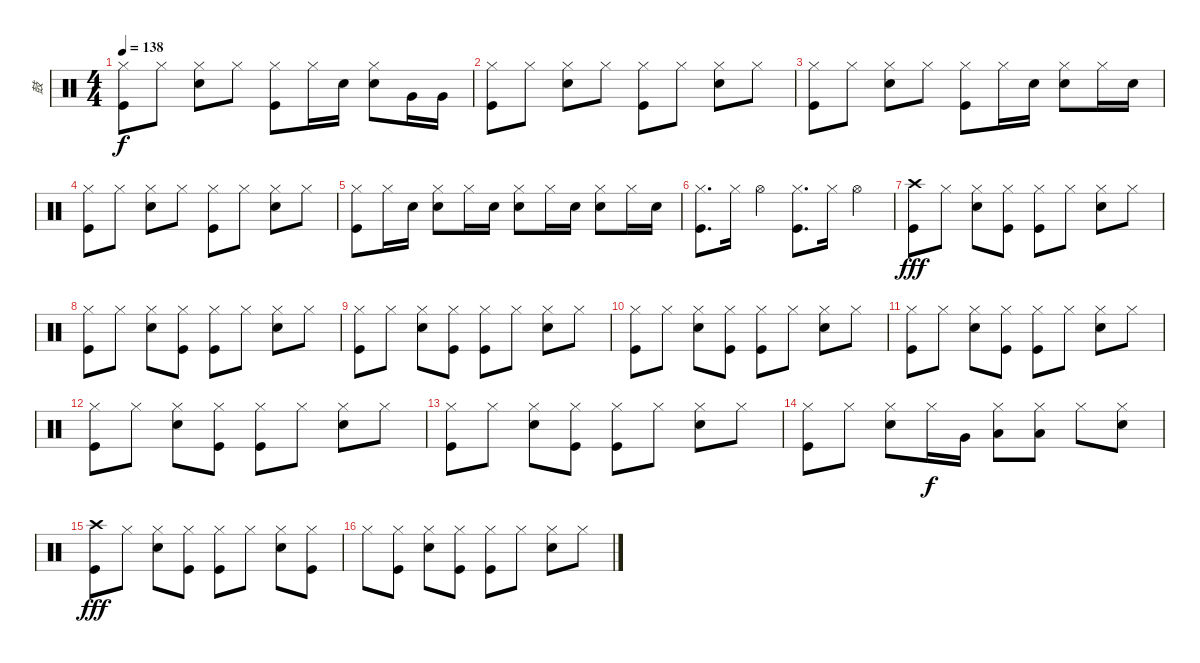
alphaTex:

\track ("鼓" "鼓") {instrument percussion}
\staff {score}
\articulation defaults
\ts (4 4)
\tempo 138
\clef neutral
\ks c
("Hi-Hat (closed)" "Kick (hit)").8{dy f} "Hi-Hat (closed)".8 ("Hi-Hat (closed)" "Snare (hit) 2").8 "Hi-Hat (closed)".8 ("Hi-Hat (closed)" "Kick (hit)").8 "Hi-Hat (closed)".16 "Snare (hit) 2".16 ("Hi-Hat (closed)" "Snare (hit) 2").8 "Very Low Tom (hit)".16 "Very Low Tom (hit)".16 |
("Hi-Hat (closed)" "Kick (hit)").8 "Hi-Hat (closed)".8 ("Hi-Hat (closed)" "Snare (hit) 2").8 "Hi-Hat (closed)".8 ("Hi-Hat (closed)" "Kick (hit)").8 "Hi-Hat (closed)".8 ("Hi-Hat (closed)" "Snare (hit) 2").8 "Hi-Hat (closed)".8 |
("Hi-Hat (closed)" "Kick (hit)").8 "Hi-Hat (closed)".8 ("Hi-Hat (closed)" "Snare (hit) 2").8 "Hi-Hat (closed)".8 ("Hi-Hat (closed)" "Kick (hit)").8 "Hi-Hat (closed)".16 "Snare (hit) 2".16 ("Hi-Hat (closed)" "Snare (hit) 2").8 "Hi-Hat (closed)".16 "Snare (hit) 2".16 |
("Hi-Hat (closed)" "Kick (hit)").8 "Hi-Hat (closed)".8 ("Hi-Hat (closed)" "Snare (hit) 2").8 "Hi-Hat (closed)".8 ("Hi-Hat (closed)" "Kick (hit)").8 "Hi-Hat (closed)".8 ("Hi-Hat (closed)" "Snare (hit) 2").8 "Hi-Hat (closed)".8 |
("Hi-Hat (closed)" "Kick (hit)").8 "Hi-Hat (closed)".16 "Snare (hit) 2".16 ("Hi-Hat (closed)" "Snare (hit) 2").8 "Hi-Hat (closed)".16 "Snare (hit) 2".16 ("Hi-Hat (closed)" "Snare (hit) 2").8 "Hi-Hat (closed)".16 "Snare (hit) 2".16 ("Hi-Hat (closed)" "Snare (hit) 2").8 "Hi-Hat (closed)".16 "Snare (hit) 2".16 |
("Hi-Hat (closed)" "Kick (hit)").8{d} "Hi-Hat (closed)".16 "Hi-Hat (open)".4 ("Hi-Hat (closed)" "Kick (hit)").8{d} "Hi-Hat (closed)".16 "Hi-Hat (open)".4 |
("Crash high (hit)" "Kick (hit)").8{dy fff} "Hi-Hat (closed)".8 ("Hi-Hat (closed)" "Snare (hit) 2").8 ("Hi-Hat (closed)" "Kick (hit)").8 ("Hi-Hat (closed)" "Kick (hit)").8 "Hi-Hat (closed)".8 ("Hi-Hat (closed)" "Snare (hit) 2").8 "Hi-Hat (closed)".8 |
("Hi-Hat (closed)" "Kick (hit)").8 "Hi-Hat (closed)".8 ("Hi-Hat (closed)" "Snare (hit) 2").8 ("Hi-Hat (closed)" "Kick (hit)").8 ("Hi-Hat (closed)" "Kick (hit)").8 "Hi-Hat (closed)".8 ("Hi-Hat (closed)" "Snare (hit) 2").8 "Hi-Hat (closed)".8 |
("Hi-Hat (closed)" "Kick (hit)").8 "Hi-Hat (closed)".8 ("Hi-Hat (closed)" "Snare (hit) 2").8 ("Hi-Hat (closed)" "Kick (hit)").8 ("Hi-Hat (closed)" "Kick (hit)").8 "Hi-Hat (closed)".8 ("Hi-Hat (closed)" "Snare (hit) 2").8 "Hi-Hat (closed)".8 |
("Hi-Hat (closed)" "Kick (hit)").8 "Hi-Hat (closed)".8 ("Hi-Hat (closed)" "Snare (hit) 2").8 ("Hi-Hat (closed)" "Kick (hit)").8 ("Hi-Hat (closed)" "Kick (hit)").8 "Hi-Hat (closed)".8 ("Hi-Hat (closed)" "Snare (hit) 2").8 "Hi-Hat (closed)".8 |
("Hi-Hat (closed)" "Kick (hit)").8 "Hi-Hat (closed)".8 ("Hi-Hat (closed)" "Snare (hit) 2").8 ("Hi-Hat (closed)" "Kick (hit)").8 ("Hi-Hat (closed)" "Kick (hit)").8 "Hi-Hat (closed)".8 ("Hi-Hat (closed)" "Snare (hit) 2").8 "Hi-Hat (closed)".8 |
("Hi-Hat (closed)" "Kick (hit)").8 "Hi-Hat (closed)".8 ("Hi-Hat (closed)" "Snare (hit) 2").8 ("Hi-Hat (closed)" "Kick (hit)").8 ("Hi-Hat (closed)" "Kick (hit)").8 "Hi-Hat (closed)".8 ("Hi-Hat (closed)" "Snare (hit) 2").8 "Hi-Hat (closed)".8 |
("Hi-Hat (closed)" "Kick (hit)").8 "Hi-Hat (closed)".8 ("Hi-Hat (closed)" "Snare (hit) 2").8 ("Hi-Hat (closed)" "Kick (hit)").8 ("Hi-Hat (closed)" "Kick (hit)").8 "Hi-Hat (closed)".8 ("Hi-Hat (closed)" "Snare (hit) 2").8 "Hi-Hat (closed)".8 |
("Hi-Hat (closed)" "Kick (hit)").8 "Hi-Hat (closed)".8 ("Hi-Hat (closed)" "Snare (hit) 2").8 "Hi-Hat (closed)".16{dy f} "Very Low Tom (hit)".16 ("Hi-Hat (closed)" "Low Tom (hit)").8 ("Hi-Hat (closed)" "Low Tom (hit)").8 "Hi-Hat (closed)".8 ("Hi-Hat (closed)" "Snare (hit) 2").8 |
("Crash high (hit)" "Kick (hit)").8{dy fff} "Hi-Hat (closed)".8 ("Hi-Hat (closed)" "Snare (hit) 2").8 ("Hi-Hat (closed)" "Kick (hit)").8 ("Hi-Hat (closed)" "Kick (hit)").8 "Hi-Hat (closed)".8 ("Hi-Hat (closed)" "Snare (hit) 2").8 ("Hi-Hat (closed)" "Kick (hit)").8 |
"Hi-Hat (closed)".8 ("Hi-Hat (closed)" "Kick (hit)").8 ("Hi-Hat (closed)" "Snare (hit) 2").8 ("Hi-Hat (closed)" "Kick (hit)").8 ("Hi-Hat (closed)" "Kick (hit)").8 "Hi-Hat (closed)".8 ("Hi-Hat (closed)" "Snare (hit) 2").8 "Hi-Hat (closed)".8
